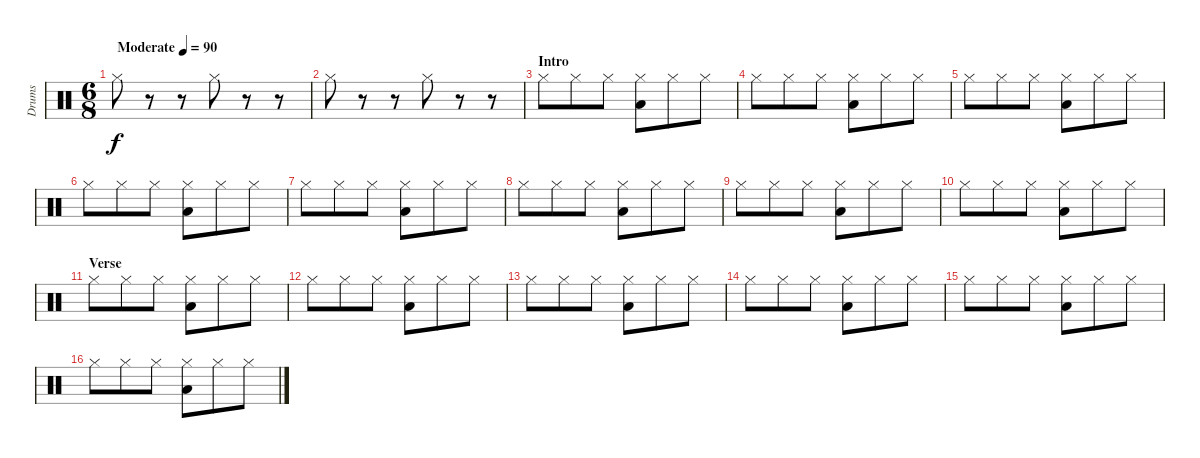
\track ("Drums" "Drums") {instrument percussion}
\staff {score}
\articulation defaults
\ts (6 8)
\tempo (90 "Moderate")
\clef neutral
\ks c "Hi-Hat (closed)".8{dy f}
r.8 r.8 "Hi-Hat (closed)".8 r.8 r.8 |
"Hi-Hat (closed)".8 r.8 r.8 "Hi-Hat (closed)".8 r.8 r.8 |
\section ("" "Intro")
"Hi-Hat (closed)".8 "Hi-Hat (closed)".8 "Hi-Hat (closed)".8 ("Hi-Hat (closed)" "Low Floor Tom (hit)").8 "Hi-Hat (closed)".8 "Hi-Hat (closed)".8 |
"Hi-Hat (closed)".8 "Hi-Hat (closed)".8 "Hi-Hat (closed)".8 ("Hi-Hat (closed)" "Low Floor Tom (hit)").8 "Hi-Hat (closed)".8 "Hi-Hat (closed)".8 |
"Hi-Hat (closed)".8 "Hi-Hat (closed)".8 "Hi-Hat (closed)".8 ("Hi-Hat (closed)" "Low Floor Tom (hit)").8 "Hi-Hat (closed)".8 "Hi-Hat (closed)".8 |
"Hi-Hat (closed)".8 "Hi-Hat (closed)".8 "Hi-Hat (closed)".8 ("Hi-Hat (closed)" "Low Floor Tom (hit)").8 "Hi-Hat (closed)".8 "Hi-Hat (closed)".8 |
"Hi-Hat (closed)".8 "Hi-Hat (closed)".8 "Hi-Hat (closed)".8 ("Hi-Hat (closed)" "Low Floor Tom (hit)").8 "Hi-Hat (closed)".8 "Hi-Hat (closed)".8 |
"Hi-Hat (closed)".8 "Hi-Hat (closed)".8 "Hi-Hat (closed)".8 ("Hi-Hat (closed)" "Low Floor Tom (hit)").8 "Hi-Hat (closed)".8 "Hi-Hat (closed)".8 |
"Hi-Hat (closed)".8 "Hi-Hat (closed)".8 "Hi-Hat (closed)".8 ("Hi-Hat (closed)" "Low Floor Tom (hit)").8 "Hi-Hat (closed)".8 "Hi-Hat (closed)".8 |
"Hi-Hat (closed)".8 "Hi-Hat (closed)".8 "Hi-Hat (closed)".8 ("Hi-Hat (closed)" "Low Floor Tom (hit)").8 "Hi-Hat (closed)".8 "Hi-Hat (closed)".8 |
\section ("" "Verse")
"Hi-Hat (closed)".8 "Hi-Hat (closed)".8 "Hi-Hat (closed)".8 ("Hi-Hat (closed)" "Low Floor Tom (hit)").8 "Hi-Hat (closed)".8 "Hi-Hat (closed)".8 |
"Hi-Hat (closed)".8 "Hi-Hat (closed)".8 "Hi-Hat (closed)".8 ("Hi-Hat (closed)" "Low Floor Tom (hit)").8 "Hi-Hat (closed)".8 "Hi-Hat (closed)".8 |
"Hi-Hat (closed)".8 "Hi-Hat (closed)".8 "Hi-Hat (closed)".8 ("Hi-Hat (closed)" "Low Floor Tom (hit)").8 "Hi-Hat (closed)".8 "Hi-Hat (closed)".8 |
"Hi-Hat (closed)".8 "Hi-Hat (closed)".8 "Hi-Hat (closed)".8 ("Hi-Hat (closed)" "Low Floor Tom (hit)").8 "Hi-Hat (closed)".8 "Hi-Hat (closed)".8 |
"Hi-Hat (closed)".8 "Hi-Hat (closed)".8 "Hi-Hat (closed)".8 ("Hi-Hat (closed)" "Low Floor Tom (hit)").8 "Hi-Hat (closed)".8 "Hi-Hat (closed)".8 |
"Hi-Hat (closed)".8 "Hi-Hat (closed)".8 "Hi-Hat (closed)".8 ("Hi-Hat (closed)" "Low Floor Tom (hit)").8 "Hi-Hat (closed)".8 "Hi-Hat (closed)".8
